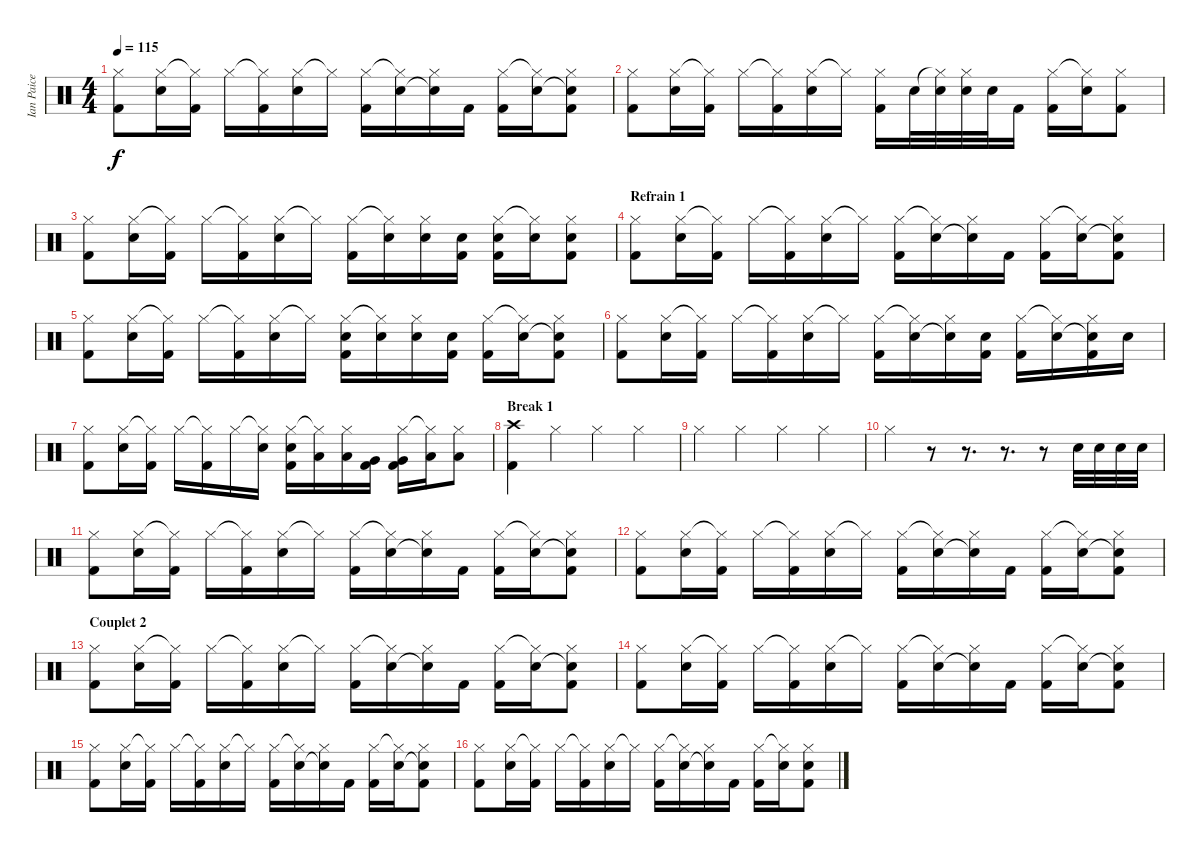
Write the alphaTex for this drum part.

\track ("Ian Paice" "Ian Paice") {instrument percussion}
\staff {score}
\articulation defaults
\ts (4 4)
\tempo 115
\clef neutral
\ks c
("Hi-Hat (closed)" "Kick (hit) 2").8{dy f} ("Hi-Hat (closed)" "Snare (hit) 2").16 ("Hi-Hat (closed)"{t} "Kick (hit) 2").16 "Hi-Hat (closed)".16 ("Hi-Hat (closed)"{t} "Kick (hit) 2").16 ("Hi-Hat (closed)" "Snare (hit) 2").16 "Hi-Hat (closed)"{t}.16 ("Hi-Hat (closed)" "Kick (hit) 2").16 ("Hi-Hat (closed)"{t} "Snare (hit) 2").16 ("Hi-Hat (closed)" "Snare (hit) 2"{t}).16 "Kick (hit) 2".16 ("Hi-Hat (closed)" "Kick (hit) 2").16 ("Hi-Hat (closed)"{t} "Snare (hit) 2").16 ("Hi-Hat (closed)" "Snare (hit) 2"{t} "Kick (hit) 2").8 |
("Hi-Hat (closed)" "Kick (hit) 2").8 ("Hi-Hat (closed)" "Snare (hit) 2").16 ("Hi-Hat (closed)"{t} "Kick (hit) 2").16 "Hi-Hat (closed)".16 ("Hi-Hat (closed)"{t} "Kick (hit) 2").16 ("Hi-Hat (closed)" "Snare (hit) 2").16 "Hi-Hat (closed)"{t}.16 ("Hi-Hat (closed)" "Kick (hit) 2").16 "Snare (hit) 2".32 ("Hi-Hat (closed)"{t} "Snare (hit) 2").32 ("Hi-Hat (closed)" "Snare (hit) 2").32 "Snare (hit) 2".32 "Kick (hit) 2".16 ("Hi-Hat (closed)" "Kick (hit) 2").16 ("Hi-Hat (closed)"{t} "Snare (hit) 2").16 ("Hi-Hat (closed)" "Kick (hit) 2").8 |
("Hi-Hat (closed)" "Kick (hit) 2").8 ("Hi-Hat (closed)" "Snare (hit) 2").16 ("Hi-Hat (closed)"{t} "Kick (hit) 2").16 "Hi-Hat (closed)".16 ("Hi-Hat (closed)"{t} "Kick (hit) 2").16 ("Hi-Hat (closed)" "Snare (hit) 2").16 "Hi-Hat (closed)"{t}.16 ("Hi-Hat (closed)" "Kick (hit) 2").16 ("Hi-Hat (closed)"{t} "Snare (hit) 2").16 ("Hi-Hat (closed)" "Snare (hit) 2").16 ("Snare (hit) 2" "Kick (hit) 2").16 ("Hi-Hat (closed)" "Snare (hit) 2" "Kick (hit) 2").16 ("Hi-Hat (closed)"{t} "Snare (hit) 2").16 ("Hi-Hat (closed)" "Snare (hit) 2" "Kick (hit) 2").8 |
\section ("" "Refrain 1")
("Hi-Hat (closed)" "Kick (hit) 2").8 ("Hi-Hat (closed)" "Snare (hit) 2").16 ("Hi-Hat (closed)"{t} "Kick (hit) 2").16 "Hi-Hat (closed)".16 ("Hi-Hat (closed)"{t} "Kick (hit) 2").16 ("Hi-Hat (closed)" "Snare (hit) 2").16 "Hi-Hat (closed)"{t}.16 ("Hi-Hat (closed)" "Kick (hit) 2").16 ("Hi-Hat (closed)"{t} "Snare (hit) 2").16 ("Hi-Hat (closed)" "Snare (hit) 2"{t}).16 "Kick (hit) 2".16 ("Hi-Hat (closed)" "Kick (hit) 2").16 ("Hi-Hat (closed)"{t} "Snare (hit) 2").16 ("Hi-Hat (closed)" "Snare (hit) 2"{t} "Kick (hit) 2").8 |
("Hi-Hat (closed)" "Kick (hit) 2").8 ("Hi-Hat (closed)" "Snare (hit) 2").16 ("Hi-Hat (closed)"{t} "Kick (hit) 2").16 "Hi-Hat (closed)".16 ("Hi-Hat (closed)"{t} "Kick (hit) 2").16 ("Hi-Hat (closed)" "Snare (hit) 2").16 "Hi-Hat (closed)"{t}.16 ("Hi-Hat (closed)" "Snare (hit) 2" "Kick (hit) 2").16 ("Hi-Hat (closed)"{t} "Snare (hit) 2").16 ("Hi-Hat (closed)" "Snare (hit) 2").16 ("Snare (hit) 2" "Kick (hit) 2").16 ("Hi-Hat (closed)" "Kick (hit) 2").16 ("Hi-Hat (closed)"{t} "Snare (hit) 2").16 ("Hi-Hat (closed)" "Snare (hit) 2"{t} "Kick (hit) 2").8 |
("Hi-Hat (closed)" "Kick (hit) 2").8 ("Hi-Hat (closed)" "Snare (hit) 2").16 ("Hi-Hat (closed)"{t} "Kick (hit) 2").16 "Hi-Hat (closed)".16 ("Hi-Hat (closed)"{t} "Kick (hit) 2").16 ("Hi-Hat (closed)" "Snare (hit) 2").16 "Hi-Hat (closed)"{t}.16 ("Hi-Hat (closed)" "Kick (hit) 2").16 ("Hi-Hat (closed)"{t} "Snare (hit) 2").16 ("Hi-Hat (closed)" "Snare (hit) 2"{t}).16 ("Snare (hit) 2" "Kick (hit) 2").16 ("Hi-Hat (closed)" "Kick (hit) 2").16 ("Hi-Hat (closed)"{t} "Snare (hit) 2").16 ("Hi-Hat (closed)" "Snare (hit) 2"{t} "Kick (hit) 2").16 "Snare (hit) 2".16 |
("Hi-Hat (closed)" "Kick (hit) 2").8 ("Hi-Hat (closed)" "Snare (hit) 2").16 ("Hi-Hat (closed)"{t} "Kick (hit) 2").16 "Hi-Hat (closed)".16 ("Hi-Hat (closed)"{t} "Kick (hit) 2").16 "Hi-Hat (closed)".16 ("Hi-Hat (closed)"{t} "Snare (hit) 2").16 ("Hi-Hat (closed)" "Snare (hit) 2" "Kick (hit) 2").16 ("Hi-Hat (closed)"{t} "Low Tom (hit)").16 ("Hi-Hat (closed)" "Low Tom (hit)").16 ("Very Low Tom (hit)" "Kick (hit) 2").16 ("Hi-Hat (closed)" "Very Low Tom (hit)" "Kick (hit) 2").16 ("Hi-Hat (closed)"{t} "Low Floor Tom (hit)").16 ("Hi-Hat (closed)" "Low Floor Tom (hit)").8 |
\section ("" "Break 1")
("Crash high (hit)" "Kick (hit) 2").4 "Hi-Hat (closed)".4 "Hi-Hat (closed)".4 "Hi-Hat (closed)".4 |
"Hi-Hat (closed)".4 "Hi-Hat (closed)".4 "Hi-Hat (closed)".4 "Hi-Hat (closed)".4 |
"Hi-Hat (closed)".4 r.8 r.8{d} r.8{d} r.8 "Snare (hit) 2".32 "Snare (hit) 2".32 "Snare (hit) 2".32 "Snare (hit) 2".32 |
("Hi-Hat (closed)" "Kick (hit) 2").8 ("Hi-Hat (closed)" "Snare (hit) 2").16 ("Hi-Hat (closed)"{t} "Kick (hit) 2").16 "Hi-Hat (closed)".16 ("Hi-Hat (closed)"{t} "Kick (hit) 2").16 ("Hi-Hat (closed)" "Snare (hit) 2").16 "Hi-Hat (closed)"{t}.16 ("Hi-Hat (closed)" "Kick (hit) 2").16 ("Hi-Hat (closed)"{t} "Snare (hit) 2").16 ("Hi-Hat (closed)" "Snare (hit) 2"{t}).16 "Kick (hit) 2".16 ("Hi-Hat (closed)" "Kick (hit) 2").16 ("Hi-Hat (closed)"{t} "Snare (hit) 2").16 ("Hi-Hat (closed)" "Snare (hit) 2"{t} "Kick (hit) 2").8 |
("Hi-Hat (closed)" "Kick (hit) 2").8 ("Hi-Hat (closed)" "Snare (hit) 2").16 ("Hi-Hat (closed)"{t} "Kick (hit) 2").16 "Hi-Hat (closed)".16 ("Hi-Hat (closed)"{t} "Kick (hit) 2").16 ("Hi-Hat (closed)" "Snare (hit) 2").16 "Hi-Hat (closed)"{t}.16 ("Hi-Hat (closed)" "Kick (hit) 2").16 ("Hi-Hat (closed)"{t} "Snare (hit) 2").16 ("Hi-Hat (closed)" "Snare (hit) 2"{t}).16 "Kick (hit) 2".16 ("Hi-Hat (closed)" "Kick (hit) 2").16 ("Hi-Hat (closed)"{t} "Snare (hit) 2").16 ("Hi-Hat (closed)" "Snare (hit) 2"{t} "Kick (hit) 2").8 |
\section ("" "Couplet 2")
("Hi-Hat (closed)" "Kick (hit) 2").8 ("Hi-Hat (closed)" "Snare (hit) 2").16 ("Hi-Hat (closed)"{t} "Kick (hit) 2").16 "Hi-Hat (closed)".16 ("Hi-Hat (closed)"{t} "Kick (hit) 2").16 ("Hi-Hat (closed)" "Snare (hit) 2").16 "Hi-Hat (closed)"{t}.16 ("Hi-Hat (closed)" "Kick (hit) 2").16 ("Hi-Hat (closed)"{t} "Snare (hit) 2").16 ("Hi-Hat (closed)" "Snare (hit) 2"{t}).16 "Kick (hit) 2".16 ("Hi-Hat (closed)" "Kick (hit) 2").16 ("Hi-Hat (closed)"{t} "Snare (hit) 2").16 ("Hi-Hat (closed)" "Snare (hit) 2"{t} "Kick (hit) 2").8 |
("Hi-Hat (closed)" "Kick (hit) 2").8 ("Hi-Hat (closed)" "Snare (hit) 2").16 ("Hi-Hat (closed)"{t} "Kick (hit) 2").16 "Hi-Hat (closed)".16 ("Hi-Hat (closed)"{t} "Kick (hit) 2").16 ("Hi-Hat (closed)" "Snare (hit) 2").16 "Hi-Hat (closed)"{t}.16 ("Hi-Hat (closed)" "Kick (hit) 2").16 ("Hi-Hat (closed)"{t} "Snare (hit) 2").16 ("Hi-Hat (closed)" "Snare (hit) 2"{t}).16 "Kick (hit) 2".16 ("Hi-Hat (closed)" "Kick (hit) 2").16 ("Hi-Hat (closed)"{t} "Snare (hit) 2").16 ("Hi-Hat (closed)" "Snare (hit) 2"{t} "Kick (hit) 2").8 |
("Hi-Hat (closed)" "Kick (hit) 2").8 ("Hi-Hat (closed)" "Snare (hit) 2").16 ("Hi-Hat (closed)"{t} "Kick (hit) 2").16 "Hi-Hat (closed)".16 ("Hi-Hat (closed)"{t} "Kick (hit) 2").16 ("Hi-Hat (closed)" "Snare (hit) 2").16 "Hi-Hat (closed)"{t}.16 ("Hi-Hat (closed)" "Kick (hit) 2").16 ("Hi-Hat (closed)"{t} "Snare (hit) 2").16 ("Hi-Hat (closed)" "Snare (hit) 2"{t}).16 "Kick (hit) 2".16 ("Hi-Hat (closed)" "Kick (hit) 2").16 ("Hi-Hat (closed)"{t} "Snare (hit) 2").16 ("Hi-Hat (closed)" "Snare (hit) 2"{t} "Kick (hit) 2").8 |
("Hi-Hat (closed)" "Kick (hit) 2").8 ("Hi-Hat (closed)" "Snare (hit) 2").16 ("Hi-Hat (closed)"{t} "Kick (hit) 2").16 "Hi-Hat (closed)".16 ("Hi-Hat (closed)"{t} "Kick (hit) 2").16 ("Hi-Hat (closed)" "Snare (hit) 2").16 "Hi-Hat (closed)"{t}.16 ("Hi-Hat (closed)" "Kick (hit) 2").16 ("Hi-Hat (closed)"{t} "Snare (hit) 2").16 ("Hi-Hat (closed)" "Snare (hit) 2"{t}).16 "Kick (hit) 2".16 ("Hi-Hat (closed)" "Kick (hit) 2").16 ("Hi-Hat (closed)"{t} "Snare (hit) 2").16 ("Hi-Hat (closed)" "Snare (hit) 2" "Kick (hit) 2").8
